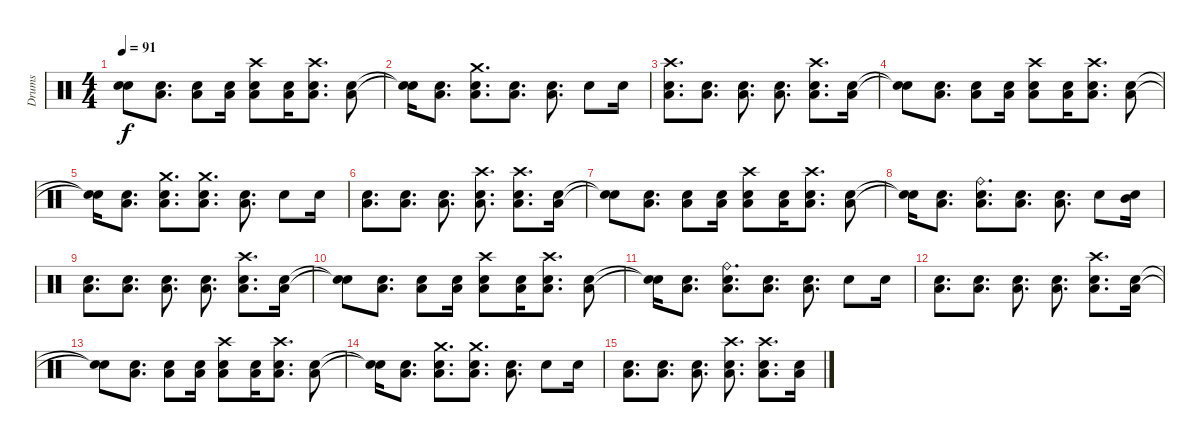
\track ("Drums" "Drums") {instrument percussion}
\staff {score}
\articulation defaults
\ts (4 4)
\tempo 91
\clef neutral
\ks c
("Snare (hit)"{t} "Snare (hit)"{t}).8{dy f} ("Low Tom (hit)" "Electric Snare (hit)").8{d} ("Low Tom (hit)" "Electric Snare (hit)").8 ("Low Tom (hit)" "Electric Snare (hit)").16 ("Crash high (hit)" "Low Tom (hit)" "Electric Snare (hit)").8 ("Low Tom (hit)" "Electric Snare (hit)").16 ("Crash high (hit)" "Low Tom (hit)" "Electric Snare (hit)").8{d} ("Low Tom (hit)" "Electric Snare (hit)").8 |
("Snare (hit)"{t} "Snare (hit)"{t}).16 ("Low Tom (hit)" "Electric Snare (hit)").8{d} ("Crash medium (hit)" "Low Tom (hit)" "Electric Snare (hit)").8{d} ("Low Tom (hit)" "Electric Snare (hit)").8{d} ("Low Tom (hit)" "Electric Snare (hit)").8{d} "Electric Snare (hit)".8 "Electric Snare (hit)".16 |
("Crash high (hit)" "Low Tom (hit)" "Electric Snare (hit)").8{d} ("Low Tom (hit)" "Electric Snare (hit)").8{d} ("Low Tom (hit)" "Electric Snare (hit)").8{d} ("Low Tom (hit)" "Electric Snare (hit)").8{d} ("Crash high (hit)" "Low Tom (hit)" "Electric Snare (hit)").8{d} ("Low Tom (hit)" "Electric Snare (hit)").16 |
("Snare (hit)"{t} "Snare (hit)"{t}).8 ("Low Tom (hit)" "Electric Snare (hit)").8{d} ("Low Tom (hit)" "Electric Snare (hit)").8 ("Low Tom (hit)" "Electric Snare (hit)").16 ("Crash high (hit)" "Low Tom (hit)" "Electric Snare (hit)").8 ("Low Tom (hit)" "Electric Snare (hit)").16 ("Crash high (hit)" "Low Tom (hit)" "Electric Snare (hit)").8{d} ("Low Tom (hit)" "Electric Snare (hit)").8 |
("Snare (hit)"{t} "Snare (hit)"{t}).16 ("Low Tom (hit)" "Electric Snare (hit)").8{d} ("Crash medium (hit)" "Low Tom (hit)" "Electric Snare (hit)").8{d} ("Crash medium (hit)" "Low Tom (hit)" "Electric Snare (hit)").8{d} ("Low Tom (hit)" "Electric Snare (hit)").8{d} "Electric Snare (hit)".8 "Electric Snare (hit)".16 |
("Low Tom (hit)" "Electric Snare (hit)").8{d} ("Low Tom (hit)" "Electric Snare (hit)").8{d} ("Low Tom (hit)" "Electric Snare (hit)").8{d} ("Crash high (hit)" "Low Tom (hit)" "Electric Snare (hit)").8{d} ("Crash high (hit)" "Low Tom (hit)" "Electric Snare (hit)").8{d} ("Low Tom (hit)" "Electric Snare (hit)").16 |
("Snare (hit)"{t} "Snare (hit)"{t}).8 ("Low Tom (hit)" "Electric Snare (hit)").8{d} ("Low Tom (hit)" "Electric Snare (hit)").8 ("Low Tom (hit)" "Electric Snare (hit)").16 ("Crash high (hit)" "Low Tom (hit)" "Electric Snare (hit)").8 ("Low Tom (hit)" "Electric Snare (hit)").16 ("Crash high (hit)" "Low Tom (hit)" "Electric Snare (hit)").8{d} ("Low Tom (hit)" "Electric Snare (hit)").8 |
("Snare (hit)"{t} "Snare (hit)"{t}).16 ("Low Tom (hit)" "Electric Snare (hit)").8{d} ("Ride (bell)" "Low Tom (hit)" "Electric Snare (hit)").8{d} ("Low Tom (hit)" "Electric Snare (hit)").8{d} ("Low Tom (hit)" "Electric Snare (hit)").8{d} "Electric Snare (hit)".8 ("Mid Tom (hit)" "Electric Snare (hit)").16 |
("Low Tom (hit)" "Electric Snare (hit)").8{d} ("Low Tom (hit)" "Electric Snare (hit)").8{d} ("Low Tom (hit)" "Electric Snare (hit)").8{d} ("Low Tom (hit)" "Electric Snare (hit)").8{d} ("Crash high (hit)" "Low Tom (hit)" "Electric Snare (hit)").8{d} ("Low Tom (hit)" "Electric Snare (hit)").16 |
("Snare (hit)"{t} "Snare (hit)"{t}).8 ("Low Tom (hit)" "Electric Snare (hit)").8{d} ("Low Tom (hit)" "Electric Snare (hit)").8 ("Low Tom (hit)" "Electric Snare (hit)").16 ("Crash high (hit)" "Low Tom (hit)" "Electric Snare (hit)").8 ("Low Tom (hit)" "Electric Snare (hit)").16 ("Crash high (hit)" "Low Tom (hit)" "Electric Snare (hit)").8{d} ("Low Tom (hit)" "Electric Snare (hit)").8 |
("Snare (hit)"{t} "Snare (hit)"{t}).16 ("Low Tom (hit)" "Electric Snare (hit)").8{d} ("Ride (bell)" "Low Tom (hit)" "Electric Snare (hit)").8{d} ("Low Tom (hit)" "Electric Snare (hit)").8{d} ("Low Tom (hit)" "Electric Snare (hit)").8{d} "Electric Snare (hit)".8 "Electric Snare (hit)".16 |
("Low Tom (hit)" "Electric Snare (hit)").8{d} ("Low Tom (hit)" "Electric Snare (hit)").8{d} ("Low Tom (hit)" "Electric Snare (hit)").8{d} ("Low Tom (hit)" "Electric Snare (hit)").8{d} ("Crash high (hit)" "Low Tom (hit)" "Electric Snare (hit)").8{d} ("Low Tom (hit)" "Electric Snare (hit)").16 |
("Snare (hit)"{t} "Snare (hit)"{t}).8 ("Low Tom (hit)" "Electric Snare (hit)").8{d} ("Low Tom (hit)" "Electric Snare (hit)").8 ("Low Tom (hit)" "Electric Snare (hit)").16 ("Crash high (hit)" "Low Tom (hit)" "Electric Snare (hit)").8 ("Low Tom (hit)" "Electric Snare (hit)").16 ("Crash high (hit)" "Low Tom (hit)" "Electric Snare (hit)").8{d} ("Low Tom (hit)" "Electric Snare (hit)").8 |
("Snare (hit)"{t} "Snare (hit)"{t}).16 ("Low Tom (hit)" "Electric Snare (hit)").8{d} ("Crash medium (hit)" "Low Tom (hit)" "Electric Snare (hit)").8{d} ("Crash medium (hit)" "Low Tom (hit)" "Electric Snare (hit)").8{d} ("Low Tom (hit)" "Electric Snare (hit)").8{d} "Electric Snare (hit)".8 "Electric Snare (hit)".16 |
("Low Tom (hit)" "Electric Snare (hit)").8{d} ("Low Tom (hit)" "Electric Snare (hit)").8{d} ("Low Tom (hit)" "Electric Snare (hit)").8{d} ("Crash high (hit)" "Low Tom (hit)" "Electric Snare (hit)").8{d} ("Crash high (hit)" "Low Tom (hit)" "Electric Snare (hit)").8{d} ("Low Tom (hit)" "Electric Snare (hit)").16
